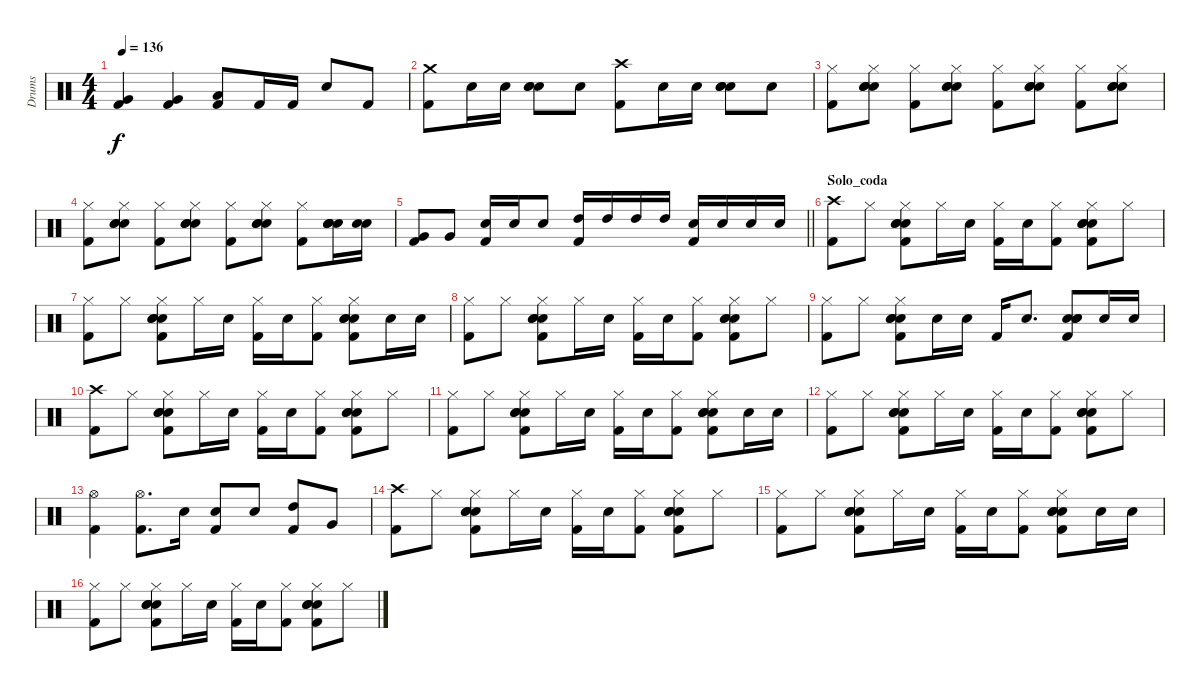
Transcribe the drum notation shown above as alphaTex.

\track ("Drums" "Drums") {instrument percussion}
\staff {score}
\articulation defaults
\ts (4 4)
\tempo 136
\clef neutral
\ks c
("Very Low Tom (hit)" "Kick (hit) 2").4{dy f} ("Very Low Tom (hit)" "Kick (hit) 2").4 ("Low Tom (hit)" "Kick (hit) 2").8 "Kick (hit) 2".16 "Kick (hit) 2".16 "Electric Snare (hit)".8 "Kick (hit) 2".8 |
("Crash medium (hit)" "Kick (hit) 2").8 "Electric Snare (hit)".16 "Electric Snare (hit)".16 ("Electric Snare (hit)" "Electric Snare (hit)" "Electric Snare (hit)").8 "Electric Snare (hit)".8 ("Crash high (hit)" "Kick (hit) 2").8 "Electric Snare (hit)".16 "Electric Snare (hit)".16 ("Electric Snare (hit)" "Electric Snare (hit)" "Electric Snare (hit)").8 "Electric Snare (hit)".8 |
("Hi-Hat (closed)" "Kick (hit) 2").8 ("Hi-Hat (closed)" "Electric Snare (hit)" "Electric Snare (hit)" "Electric Snare (hit)").8 ("Hi-Hat (closed)" "Kick (hit) 2").8 ("Hi-Hat (closed)" "Electric Snare (hit)" "Electric Snare (hit)" "Electric Snare (hit)").8 ("Hi-Hat (closed)" "Kick (hit) 2").8 ("Hi-Hat (closed)" "Electric Snare (hit)" "Electric Snare (hit)" "Electric Snare (hit)").8 ("Hi-Hat (closed)" "Kick (hit) 2").8 ("Hi-Hat (closed)" "Electric Snare (hit)" "Electric Snare (hit)" "Electric Snare (hit)").8 |
("Hi-Hat (closed)" "Kick (hit) 2").8 ("Hi-Hat (closed)" "Electric Snare (hit)" "Electric Snare (hit)" "Electric Snare (hit)").8 ("Hi-Hat (closed)" "Kick (hit) 2").8 ("Hi-Hat (closed)" "Electric Snare (hit)" "Electric Snare (hit)" "Electric Snare (hit)").8 ("Hi-Hat (closed)" "Kick (hit) 2").8 ("Hi-Hat (closed)" "Electric Snare (hit)" "Electric Snare (hit)" "Electric Snare (hit)").8 ("Hi-Hat (closed)" "Kick (hit) 2").8 ("Electric Snare (hit)" "Electric Snare (hit)" "Electric Snare (hit)" "Electric Snare (hit)").16 ("Electric Snare (hit)" "Snare (hit)").16 |
\barLineRight lightlight
("Very Low Tom (hit)" "Kick (hit) 2").8 "Very Low Tom (hit)".8 ("Electric Snare (hit)" "Kick (hit) 2").16 "Electric Snare (hit)".16 "Electric Snare (hit)".8 ("High Tom (hit)" "Kick (hit) 2").16 "High Tom (hit)".16 "High Tom (hit)".16 "High Tom (hit)".16 ("Electric Snare (hit)" "Kick (hit) 2").16 "Electric Snare (hit)".16 "Electric Snare (hit)".16 "Electric Snare (hit)".16 |
\section ("" "Solo_coda")
("Crash high (hit)" "Kick (hit) 2").8 "Hi-Hat (closed)".8 ("Hi-Hat (closed)" "Electric Snare (hit)" "Electric Snare (hit)" "Electric Snare (hit)" "Kick (hit) 2").8 "Hi-Hat (closed)".16 "Electric Snare (hit)".16 ("Hi-Hat (closed)" "Kick (hit) 2").16 "Electric Snare (hit)".16 ("Hi-Hat (closed)" "Kick (hit) 2").8 ("Hi-Hat (closed)" "Electric Snare (hit)" "Electric Snare (hit)" "Electric Snare (hit)" "Kick (hit) 2").8 "Hi-Hat (closed)".8 |
("Hi-Hat (closed)" "Kick (hit) 2").8 "Hi-Hat (closed)".8 ("Hi-Hat (closed)" "Electric Snare (hit)" "Electric Snare (hit)" "Electric Snare (hit)" "Kick (hit) 2").8 "Hi-Hat (closed)".16 "Electric Snare (hit)".16 ("Hi-Hat (closed)" "Kick (hit) 2").16 "Electric Snare (hit)".16 ("Hi-Hat (closed)" "Kick (hit) 2").8 ("Hi-Hat (closed)" "Electric Snare (hit)" "Electric Snare (hit)" "Electric Snare (hit)" "Kick (hit) 2").8 "Electric Snare (hit)".16 "Electric Snare (hit)".16 |
("Hi-Hat (closed)" "Kick (hit) 2").8 "Hi-Hat (closed)".8 ("Hi-Hat (closed)" "Electric Snare (hit)" "Electric Snare (hit)" "Electric Snare (hit)" "Kick (hit) 2").8 "Hi-Hat (closed)".16 "Electric Snare (hit)".16 ("Hi-Hat (closed)" "Kick (hit) 2").16 "Electric Snare (hit)".16 ("Hi-Hat (closed)" "Kick (hit) 2").8 ("Hi-Hat (closed)" "Electric Snare (hit)" "Electric Snare (hit)" "Electric Snare (hit)" "Kick (hit) 2").8 "Hi-Hat (closed)".8 |
("Hi-Hat (closed)" "Kick (hit) 2").8 "Hi-Hat (closed)".8 ("Hi-Hat (closed)" "Electric Snare (hit)" "Electric Snare (hit)" "Electric Snare (hit)" "Kick (hit) 2").8 "Electric Snare (hit)".16 "Electric Snare (hit)".16 "Kick (hit) 2".16 "Electric Snare (hit)".8{d} ("Electric Snare (hit)" "Electric Snare (hit)" "Electric Snare (hit)" "Kick (hit) 2").8 "Electric Snare (hit)".16 "Electric Snare (hit)".16 |
("Crash high (hit)" "Kick (hit) 2").8 "Hi-Hat (closed)".8 ("Hi-Hat (closed)" "Electric Snare (hit)" "Electric Snare (hit)" "Electric Snare (hit)" "Kick (hit) 2").8 "Hi-Hat (closed)".16 "Electric Snare (hit)".16 ("Hi-Hat (closed)" "Kick (hit) 2").16 "Electric Snare (hit)".16 ("Hi-Hat (closed)" "Kick (hit) 2").8 ("Hi-Hat (closed)" "Electric Snare (hit)" "Electric Snare (hit)" "Electric Snare (hit)" "Kick (hit) 2").8 "Hi-Hat (closed)".8 |
("Hi-Hat (closed)" "Kick (hit) 2").8 "Hi-Hat (closed)".8 ("Hi-Hat (closed)" "Electric Snare (hit)" "Electric Snare (hit)" "Electric Snare (hit)" "Kick (hit) 2").8 "Hi-Hat (closed)".16 "Electric Snare (hit)".16 ("Hi-Hat (closed)" "Kick (hit) 2").16 "Electric Snare (hit)".16 ("Hi-Hat (closed)" "Kick (hit) 2").8 ("Hi-Hat (closed)" "Electric Snare (hit)" "Electric Snare (hit)" "Electric Snare (hit)" "Kick (hit) 2").8 "Electric Snare (hit)".16 "Electric Snare (hit)".16 |
("Hi-Hat (closed)" "Kick (hit) 2").8 "Hi-Hat (closed)".8 ("Hi-Hat (closed)" "Electric Snare (hit)" "Electric Snare (hit)" "Electric Snare (hit)" "Kick (hit) 2").8 "Hi-Hat (closed)".16 "Electric Snare (hit)".16 ("Hi-Hat (closed)" "Kick (hit) 2").16 "Electric Snare (hit)".16 ("Hi-Hat (closed)" "Kick (hit) 2").8 ("Hi-Hat (closed)" "Electric Snare (hit)" "Electric Snare (hit)" "Electric Snare (hit)" "Kick (hit) 2").8 "Hi-Hat (closed)".8 |
("Hi-Hat (open)" "Kick (hit) 2").4 ("Hi-Hat (open)" "Kick (hit) 2").8{d} "Electric Snare (hit)".16 ("Electric Snare (hit)" "Kick (hit) 2").8 "Electric Snare (hit)".8 ("High Tom (hit)" "Kick (hit) 2").8 "Very Low Tom (hit)".8 |
("Crash high (hit)" "Kick (hit) 2").8 "Hi-Hat (closed)".8 ("Hi-Hat (closed)" "Electric Snare (hit)" "Electric Snare (hit)" "Electric Snare (hit)" "Kick (hit) 2").8 "Hi-Hat (closed)".16 "Electric Snare (hit)".16 ("Hi-Hat (closed)" "Kick (hit) 2").16 "Electric Snare (hit)".16 ("Hi-Hat (closed)" "Kick (hit) 2").8 ("Hi-Hat (closed)" "Electric Snare (hit)" "Electric Snare (hit)" "Electric Snare (hit)" "Kick (hit) 2").8 "Hi-Hat (closed)".8 |
("Hi-Hat (closed)" "Kick (hit) 2").8 "Hi-Hat (closed)".8 ("Hi-Hat (closed)" "Electric Snare (hit)" "Electric Snare (hit)" "Electric Snare (hit)" "Kick (hit) 2").8 "Hi-Hat (closed)".16 "Electric Snare (hit)".16 ("Hi-Hat (closed)" "Kick (hit) 2").16 "Electric Snare (hit)".16 ("Hi-Hat (closed)" "Kick (hit) 2").8 ("Hi-Hat (closed)" "Electric Snare (hit)" "Electric Snare (hit)" "Electric Snare (hit)" "Kick (hit) 2").8 "Electric Snare (hit)".16 "Electric Snare (hit)".16 |
("Hi-Hat (closed)" "Kick (hit) 2").8 "Hi-Hat (closed)".8 ("Hi-Hat (closed)" "Electric Snare (hit)" "Electric Snare (hit)" "Electric Snare (hit)" "Kick (hit) 2").8 "Hi-Hat (closed)".16 "Electric Snare (hit)".16 ("Hi-Hat (closed)" "Kick (hit) 2").16 "Electric Snare (hit)".16 ("Hi-Hat (closed)" "Kick (hit) 2").8 ("Hi-Hat (closed)" "Electric Snare (hit)" "Electric Snare (hit)" "Electric Snare (hit)" "Kick (hit) 2").8 "Hi-Hat (closed)".8
